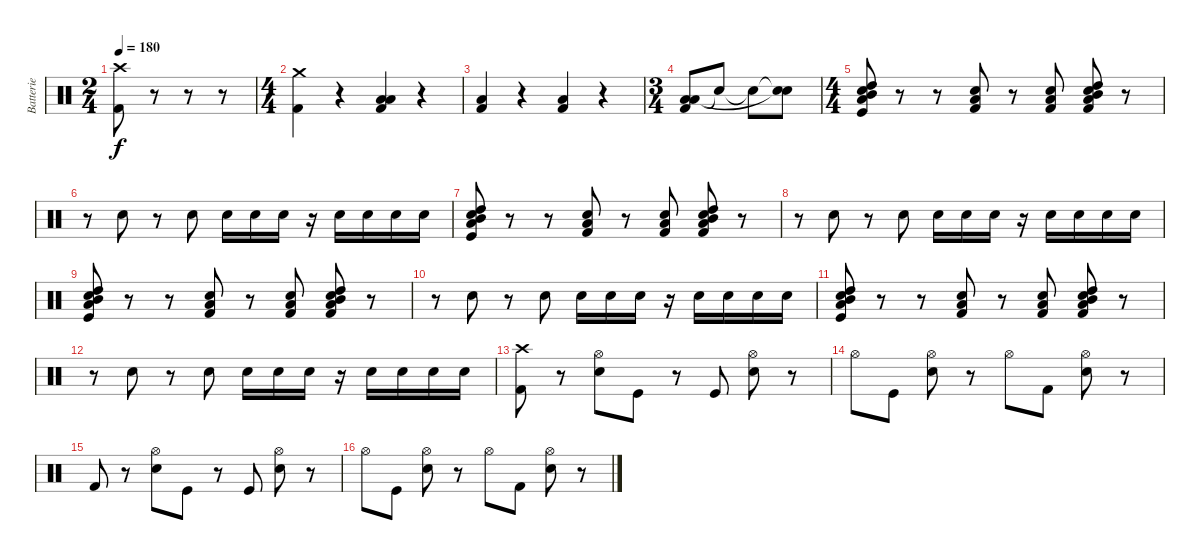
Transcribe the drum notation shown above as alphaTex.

\track ("Batterie" "Batterie") {instrument percussion}
\staff {score}
\articulation defaults
\ts (2 4)
\tempo 180
\clef neutral
\ks c
("Crash high (hit)" "Kick (hit) 2").8{dy f} r.8 r.8 r.8 |
\ts (4 4)
("Crash medium (hit)" "Kick (hit) 2").4 r.4 ("Low Floor Tom (hit)" "Low Tom (hit)" "Kick (hit) 2").4 r.4 |
("Low Floor Tom (hit)" "Kick (hit) 2").4 r.4 ("Low Floor Tom (hit)" "Kick (hit) 2").4 r.4 |
\ts (3 4)
("Low Tom (hit)" "Low Floor Tom (hit)" "Kick (hit) 2").8 "Snare (hit)"{t}.8 "Snare (hit)"{t}.8 ("Snare (hit)"{t} "Snare (hit)"{t}).8 |
\ts (4 4)
("Electric Snare (hit)" "Low Tom (hit)" "Mid Tom (hit)" "High Tom (hit)" "Kick (hit)").8 r.8 r.8 ("Electric Snare (hit)" "Low Tom (hit)" "Kick (hit) 2").8 r.8 ("Electric Snare (hit)" "Low Tom (hit)" "Kick (hit) 2").8 ("Electric Snare (hit)" "Mid Tom (hit)" "High Tom (hit)" "Low Tom (hit)" "Kick (hit) 2").8 r.8 |
r.8 "Electric Snare (hit)".8 r.8 "Electric Snare (hit)".8 "Electric Snare (hit)".16 "Electric Snare (hit)".16 "Electric Snare (hit)".16 r.16 "Electric Snare (hit)".16 "Electric Snare (hit)".16 "Electric Snare (hit)".16 "Electric Snare (hit)".16 |
("Electric Snare (hit)" "Low Tom (hit)" "Mid Tom (hit)" "High Tom (hit)" "Kick (hit)").8 r.8 r.8 ("Electric Snare (hit)" "Low Tom (hit)" "Kick (hit) 2").8 r.8 ("Electric Snare (hit)" "Low Tom (hit)" "Kick (hit) 2").8 ("Electric Snare (hit)" "Mid Tom (hit)" "High Tom (hit)" "Low Tom (hit)" "Kick (hit) 2").8 r.8 |
r.8 "Electric Snare (hit)".8 r.8 "Electric Snare (hit)".8 "Electric Snare (hit)".16 "Electric Snare (hit)".16 "Electric Snare (hit)".16 r.16 "Electric Snare (hit)".16 "Electric Snare (hit)".16 "Electric Snare (hit)".16 "Electric Snare (hit)".16 |
("Electric Snare (hit)" "Low Tom (hit)" "Mid Tom (hit)" "High Tom (hit)" "Kick (hit)").8 r.8 r.8 ("Electric Snare (hit)" "Low Tom (hit)" "Kick (hit) 2").8 r.8 ("Electric Snare (hit)" "Low Tom (hit)" "Kick (hit) 2").8 ("Electric Snare (hit)" "Mid Tom (hit)" "High Tom (hit)" "Low Tom (hit)" "Kick (hit) 2").8 r.8 |
r.8 "Electric Snare (hit)".8 r.8 "Electric Snare (hit)".8 "Electric Snare (hit)".16 "Electric Snare (hit)".16 "Electric Snare (hit)".16 r.16 "Electric Snare (hit)".16 "Electric Snare (hit)".16 "Electric Snare (hit)".16 "Electric Snare (hit)".16 |
("Electric Snare (hit)" "Low Tom (hit)" "Mid Tom (hit)" "High Tom (hit)" "Kick (hit)").8 r.8 r.8 ("Electric Snare (hit)" "Low Tom (hit)" "Kick (hit) 2").8 r.8 ("Electric Snare (hit)" "Low Tom (hit)" "Kick (hit) 2").8 ("Electric Snare (hit)" "Mid Tom (hit)" "High Tom (hit)" "Low Tom (hit)" "Kick (hit) 2").8 r.8 |
r.8 "Electric Snare (hit)".8 r.8 "Electric Snare (hit)".8 "Electric Snare (hit)".16 "Electric Snare (hit)".16 "Electric Snare (hit)".16 r.16 "Electric Snare (hit)".16 "Electric Snare (hit)".16 "Electric Snare (hit)".16 "Electric Snare (hit)".16 |
("Crash high (hit)" "Kick (hit) 2").8 r.8 ("Hi-Hat (open)" "Electric Snare (hit)").8 "Kick (hit)".8 r.8 "Kick (hit)".8 ("Hi-Hat (open)" "Electric Snare (hit)").8 r.8 |
"Hi-Hat (open)".8 "Kick (hit)".8 ("Hi-Hat (open)" "Electric Snare (hit)").8 r.8 "Hi-Hat (open)".8 "Kick (hit) 2".8 ("Hi-Hat (open)" "Electric Snare (hit)").8 r.8 |
"Kick (hit) 2".8 r.8 ("Hi-Hat (open)" "Electric Snare (hit)").8 "Kick (hit)".8 r.8 "Kick (hit)".8 ("Hi-Hat (open)" "Electric Snare (hit)").8 r.8 |
"Hi-Hat (open)".8 "Kick (hit)".8 ("Hi-Hat (open)" "Electric Snare (hit)").8 r.8 "Hi-Hat (open)".8 "Kick (hit) 2".8 ("Hi-Hat (open)" "Electric Snare (hit)").8 r.8
